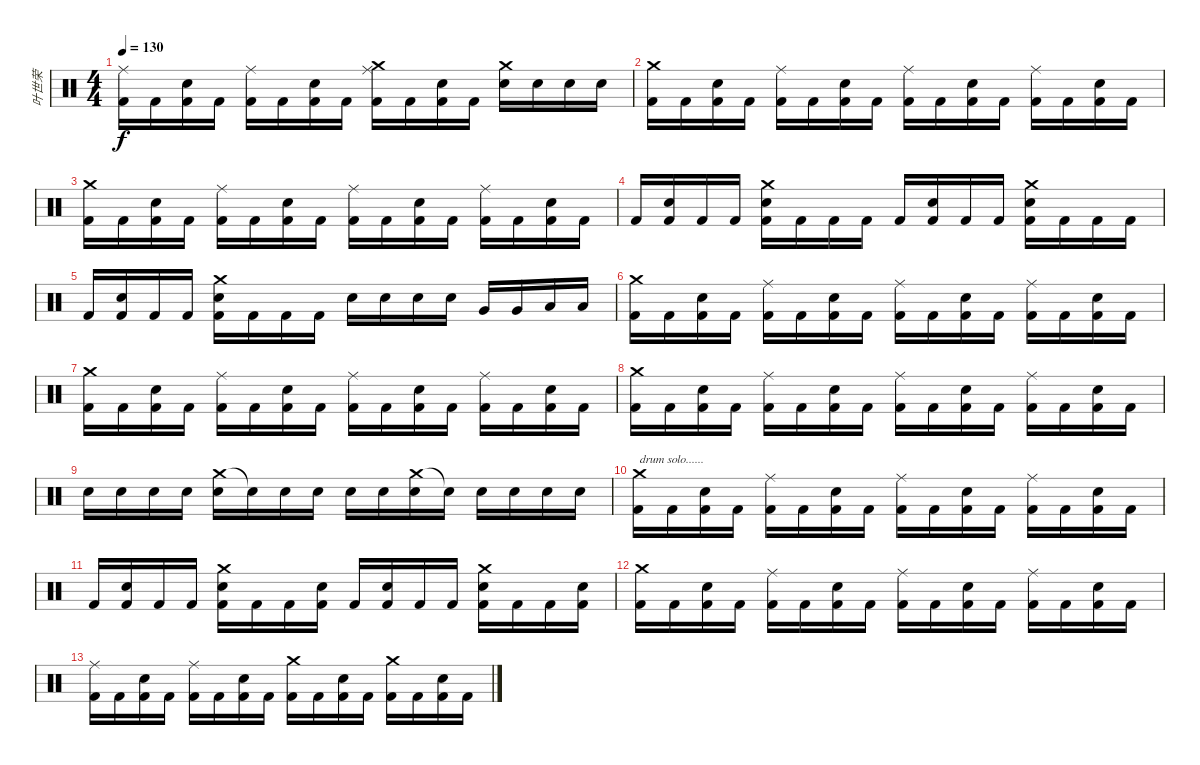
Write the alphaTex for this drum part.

\track ("叶世荣" "叶世荣") {instrument percussion}
\staff {score}
\articulation defaults
\ts (4 4)
\tempo 130
\clef neutral
\ks c
("Ride (middle)" "Kick (hit) 2").16{dy f} "Kick (hit) 2".16 ("Snare (hit) 2" "Kick (hit) 2").16 "Kick (hit) 2".16 ("Ride (middle)" "Kick (hit) 2").16 "Kick (hit) 2".16 ("Snare (hit) 2" "Kick (hit) 2").16 "Kick (hit) 2".16 ("Ride (middle)" "Crash medium (hit)" "Kick (hit) 2").16 "Kick (hit) 2".16 ("Snare (hit) 2" "Kick (hit) 2").16 "Kick (hit) 2".16 ("Crash medium (hit)" "Snare (hit) 2").16 "Snare (hit) 2".16 "Snare (hit) 2".16 "Snare (hit) 2".16 |
("Crash medium (hit)" "Kick (hit) 2").16 "Kick (hit) 2".16 ("Snare (hit) 2" "Kick (hit) 2").16 "Kick (hit) 2".16 ("Ride (middle)" "Kick (hit) 2").16 "Kick (hit) 2".16 ("Snare (hit) 2" "Kick (hit) 2").16 "Kick (hit) 2".16 ("Ride (middle)" "Kick (hit) 2").16 "Kick (hit) 2".16 ("Snare (hit) 2" "Kick (hit) 2").16 "Kick (hit) 2".16 ("Ride (middle)" "Kick (hit) 2").16 "Kick (hit) 2".16 ("Snare (hit) 2" "Kick (hit) 2").16 "Kick (hit) 2".16 |
("Crash medium (hit)" "Kick (hit) 2").16 "Kick (hit) 2".16 ("Snare (hit) 2" "Kick (hit) 2").16 "Kick (hit) 2".16 ("Ride (middle)" "Kick (hit) 2").16 "Kick (hit) 2".16 ("Snare (hit) 2" "Kick (hit) 2").16 "Kick (hit) 2".16 ("Ride (middle)" "Kick (hit) 2").16 "Kick (hit) 2".16 ("Snare (hit) 2" "Kick (hit) 2").16 "Kick (hit) 2".16 ("Ride (middle)" "Kick (hit) 2").16 "Kick (hit) 2".16 ("Snare (hit) 2" "Kick (hit) 2").16 "Kick (hit) 2".16 |
"Kick (hit) 2".16 ("Snare (hit) 2" "Kick (hit) 2").16 "Kick (hit) 2".16 "Kick (hit) 2".16 ("Crash medium (hit)" "Snare (hit) 2" "Kick (hit) 2").16 "Kick (hit) 2".16 "Kick (hit) 2".16 "Kick (hit) 2".16 "Kick (hit) 2".16 ("Snare (hit) 2" "Kick (hit) 2").16 "Kick (hit) 2".16 "Kick (hit) 2".16 ("Crash medium (hit)" "Snare (hit) 2" "Kick (hit) 2").16 "Kick (hit) 2".16 "Kick (hit) 2".16 "Kick (hit) 2".16 |
"Kick (hit) 2".16 ("Snare (hit) 2" "Kick (hit) 2").16 "Kick (hit) 2".16 "Kick (hit) 2".16 ("Crash medium (hit)" "Snare (hit) 2" "Kick (hit) 2").16 "Kick (hit) 2".16 "Kick (hit) 2".16 "Kick (hit) 2".16 "Snare (hit) 2".16 "Snare (hit) 2".16 "Snare (hit) 2".16 "Snare (hit) 2".16 "Very Low Tom (hit)".16 "Very Low Tom (hit)".16 "Low Floor Tom (hit)".16 "Low Floor Tom (hit)".16 |
("Crash medium (hit)" "Kick (hit) 2").16 "Kick (hit) 2".16 ("Snare (hit) 2" "Kick (hit) 2").16 "Kick (hit) 2".16 ("Ride (middle)" "Kick (hit) 2").16 "Kick (hit) 2".16 ("Snare (hit) 2" "Kick (hit) 2").16 "Kick (hit) 2".16 ("Ride (middle)" "Kick (hit) 2").16 "Kick (hit) 2".16 ("Snare (hit) 2" "Kick (hit) 2").16 "Kick (hit) 2".16 ("Ride (middle)" "Kick (hit) 2").16 "Kick (hit) 2".16 ("Snare (hit) 2" "Kick (hit) 2").16 "Kick (hit) 2".16 |
("Crash medium (hit)" "Kick (hit) 2").16 "Kick (hit) 2".16 ("Snare (hit) 2" "Kick (hit) 2").16 "Kick (hit) 2".16 ("Ride (middle)" "Kick (hit) 2").16 "Kick (hit) 2".16 ("Snare (hit) 2" "Kick (hit) 2").16 "Kick (hit) 2".16 ("Ride (middle)" "Kick (hit) 2").16 "Kick (hit) 2".16 ("Snare (hit) 2" "Kick (hit) 2").16 "Kick (hit) 2".16 ("Ride (middle)" "Kick (hit) 2").16 "Kick (hit) 2".16 ("Snare (hit) 2" "Kick (hit) 2").16 "Kick (hit) 2".16 |
("Crash medium (hit)" "Kick (hit) 2").16 "Kick (hit) 2".16 ("Snare (hit) 2" "Kick (hit) 2").16 "Kick (hit) 2".16 ("Ride (middle)" "Kick (hit) 2").16 "Kick (hit) 2".16 ("Snare (hit) 2" "Kick (hit) 2").16 "Kick (hit) 2".16 ("Ride (middle)" "Kick (hit) 2").16 "Kick (hit) 2".16 ("Snare (hit) 2" "Kick (hit) 2").16 "Kick (hit) 2".16 ("Ride (middle)" "Kick (hit) 2").16 "Kick (hit) 2".16 ("Snare (hit) 2" "Kick (hit) 2").16 "Kick (hit) 2".16 |
"Snare (hit) 2".16 "Snare (hit) 2".16 "Snare (hit) 2".16 "Snare (hit) 2".16 ("Crash medium (hit)" "Snare (hit) 2").16 "Snare (hit)"{t}.16 "Snare (hit) 2".16 "Snare (hit) 2".16 "Snare (hit) 2".16 "Snare (hit) 2".16 ("Crash medium (hit)" "Snare (hit) 2").16 "Snare (hit)"{t}.16 "Snare (hit) 2".16 "Snare (hit) 2".16 "Snare (hit) 2".16 "Snare (hit) 2".16 |
("Crash medium (hit)" "Kick (hit) 2").16{txt "drum solo......"} "Kick (hit) 2".16 ("Snare (hit) 2" "Kick (hit) 2").16 "Kick (hit) 2".16 ("Ride (middle)" "Kick (hit) 2").16 "Kick (hit) 2".16 ("Snare (hit) 2" "Kick (hit) 2").16 "Kick (hit) 2".16 ("Ride (middle)" "Kick (hit) 2").16 "Kick (hit) 2".16 ("Snare (hit) 2" "Kick (hit) 2").16 "Kick (hit) 2".16 ("Ride (middle)" "Kick (hit) 2").16 "Kick (hit) 2".16 ("Snare (hit) 2" "Kick (hit) 2").16 "Kick (hit) 2".16 |
"Kick (hit) 2".16 ("Snare (hit) 2" "Kick (hit) 2").16 "Kick (hit) 2".16 "Kick (hit) 2".16 ("Crash medium (hit)" "Snare (hit) 2" "Kick (hit) 2").16 "Kick (hit) 2".16 "Kick (hit) 2".16 ("Snare (hit) 2" "Kick (hit) 2").16 "Kick (hit) 2".16 ("Snare (hit) 2" "Kick (hit) 2").16 "Kick (hit) 2".16 "Kick (hit) 2".16 ("Crash medium (hit)" "Snare (hit) 2" "Kick (hit) 2").16 "Kick (hit) 2".16 "Kick (hit) 2".16 ("Snare (hit) 2" "Kick (hit) 2").16 |
("Crash medium (hit)" "Kick (hit) 2").16 "Kick (hit) 2".16 ("Snare (hit) 2" "Kick (hit) 2").16 "Kick (hit) 2".16 ("Ride (middle)" "Kick (hit) 2").16 "Kick (hit) 2".16 ("Snare (hit) 2" "Kick (hit) 2").16 "Kick (hit) 2".16 ("Ride (middle)" "Kick (hit) 2").16 "Kick (hit) 2".16 ("Snare (hit) 2" "Kick (hit) 2").16 "Kick (hit) 2".16 ("Ride (middle)" "Kick (hit) 2").16 "Kick (hit) 2".16 ("Snare (hit) 2" "Kick (hit) 2").16 "Kick (hit) 2".16 |
("Ride (middle)" "Kick (hit) 2").16 "Kick (hit) 2".16 ("Snare (hit) 2" "Kick (hit) 2").16 "Kick (hit) 2".16 ("Ride (middle)" "Kick (hit) 2").16 "Kick (hit) 2".16 ("Snare (hit) 2" "Kick (hit) 2").16 "Kick (hit) 2".16 ("Crash medium (hit)" "Kick (hit) 2").16 "Kick (hit) 2".16 ("Snare (hit) 2" "Kick (hit) 2").16 "Kick (hit) 2".16 ("Crash medium (hit)" "Kick (hit) 2").16 "Kick (hit) 2".16 ("Snare (hit) 2" "Kick (hit) 2").16 "Kick (hit) 2".16
